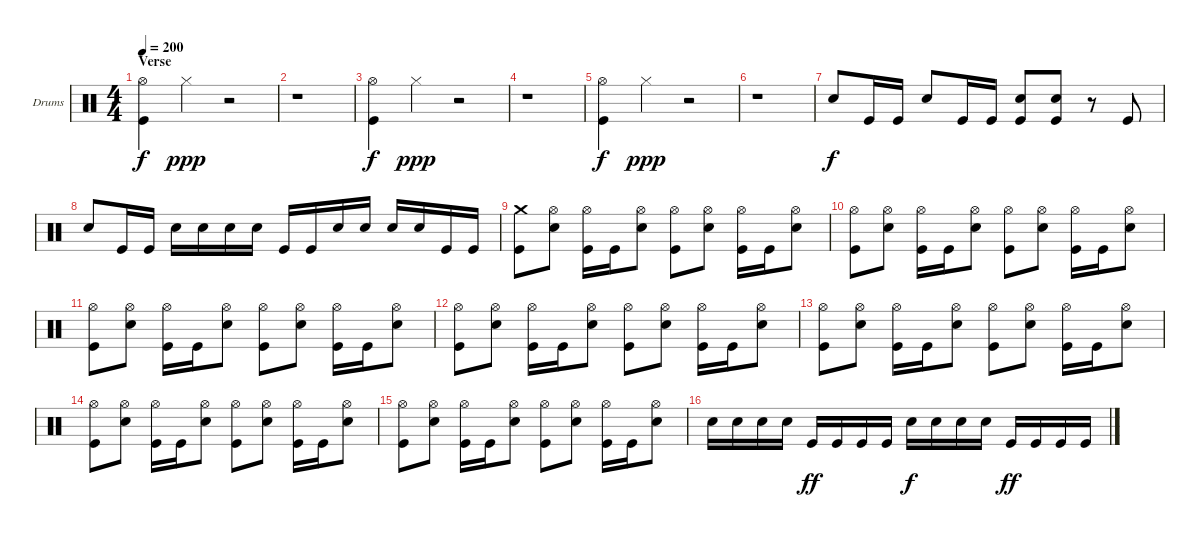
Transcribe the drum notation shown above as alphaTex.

\bracketExtendMode groupsimilarinstruments
\firstSystemTrackNameOrientation horizontal
\otherSystemsTrackNameOrientation horizontal
\track ("Drumkit" "Drums") {instrument percussion}
\staff {score}
\articulation defaults
\ts (4 4)
\section ("" "Verse")
\tempo 200
\clef neutral
\ks aminor
("Kick (hit)" "Hi-Hat (open)").4{dy f} "Hi-Hat (closed)".4{dy ppp} r.2 |
r.1 |
("Kick (hit)" "Hi-Hat (open)").4{dy f} "Hi-Hat (closed)".4{dy ppp} r.2 |
r.1 |
("Kick (hit)" "Hi-Hat (open)").4{dy f} "Hi-Hat (closed)".4{dy ppp} r.2 |
r.1 |
"Snare (hit) 2".8{dy f} "Kick (hit)".16 "Kick (hit)".16 "Snare (hit) 2".8 "Kick (hit)".16 "Kick (hit)".16 ("Kick (hit)" "Snare (hit) 2").8 ("Kick (hit)" "Snare (hit) 2").8 r.8 "Kick (hit)".8 |
"Snare (hit) 2".8 "Kick (hit)".16 "Kick (hit)".16 "Snare (hit) 2".16 "Snare (hit) 2".16 "Snare (hit) 2".16 "Snare (hit) 2".16 "Kick (hit)".16 "Kick (hit)".16 "Snare (hit) 2".16 "Snare (hit) 2".16 "Snare (hit) 2".16 "Snare (hit) 2".16 "Kick (hit)".16 "Kick (hit)".16 |
\section ("" "")
("Kick (hit)" "Crash medium (hit)").8 ("Snare (hit) 2" "Hi-Hat (open)").8 ("Kick (hit)" "Hi-Hat (open)").16 "Kick (hit)".16 ("Snare (hit) 2" "Hi-Hat (open)").8 ("Kick (hit)" "Hi-Hat (open)").8 ("Snare (hit) 2" "Hi-Hat (open)").8 ("Kick (hit)" "Hi-Hat (open)").16 "Kick (hit)".16 ("Snare (hit) 2" "Hi-Hat (open)").8 |
("Kick (hit)" "Hi-Hat (open)").8 ("Snare (hit) 2" "Hi-Hat (open)").8 ("Kick (hit)" "Hi-Hat (open)").16 "Kick (hit)".16 ("Snare (hit) 2" "Hi-Hat (open)").8 ("Kick (hit)" "Hi-Hat (open)").8 ("Snare (hit) 2" "Hi-Hat (open)").8 ("Kick (hit)" "Hi-Hat (open)").16 "Kick (hit)".16 ("Snare (hit) 2" "Hi-Hat (open)").8 |
("Kick (hit)" "Hi-Hat (open)").8 ("Snare (hit) 2" "Hi-Hat (open)").8 ("Kick (hit)" "Hi-Hat (open)").16 "Kick (hit)".16 ("Snare (hit) 2" "Hi-Hat (open)").8 ("Kick (hit)" "Hi-Hat (open)").8 ("Snare (hit) 2" "Hi-Hat (open)").8 ("Kick (hit)" "Hi-Hat (open)").16 "Kick (hit)".16 ("Snare (hit) 2" "Hi-Hat (open)").8 |
("Kick (hit)" "Hi-Hat (open)").8 ("Snare (hit) 2" "Hi-Hat (open)").8 ("Kick (hit)" "Hi-Hat (open)").16 "Kick (hit)".16 ("Snare (hit) 2" "Hi-Hat (open)").8 ("Kick (hit)" "Hi-Hat (open)").8 ("Snare (hit) 2" "Hi-Hat (open)").8 ("Kick (hit)" "Hi-Hat (open)").16 "Kick (hit)".16 ("Snare (hit) 2" "Hi-Hat (open)").8 |
("Kick (hit)" "Hi-Hat (open)").8 ("Snare (hit) 2" "Hi-Hat (open)").8 ("Kick (hit)" "Hi-Hat (open)").16 "Kick (hit)".16 ("Snare (hit) 2" "Hi-Hat (open)").8 ("Kick (hit)" "Hi-Hat (open)").8 ("Snare (hit) 2" "Hi-Hat (open)").8 ("Kick (hit)" "Hi-Hat (open)").16 "Kick (hit)".16 ("Snare (hit) 2" "Hi-Hat (open)").8 |
("Kick (hit)" "Hi-Hat (open)").8 ("Snare (hit) 2" "Hi-Hat (open)").8 ("Kick (hit)" "Hi-Hat (open)").16 "Kick (hit)".16 ("Snare (hit) 2" "Hi-Hat (open)").8 ("Kick (hit)" "Hi-Hat (open)").8 ("Snare (hit) 2" "Hi-Hat (open)").8 ("Kick (hit)" "Hi-Hat (open)").16 "Kick (hit)".16 ("Snare (hit) 2" "Hi-Hat (open)").8 |
("Kick (hit)" "Hi-Hat (open)").8 ("Snare (hit) 2" "Hi-Hat (open)").8 ("Kick (hit)" "Hi-Hat (open)").16 "Kick (hit)".16 ("Snare (hit) 2" "Hi-Hat (open)").8 ("Kick (hit)" "Hi-Hat (open)").8 ("Snare (hit) 2" "Hi-Hat (open)").8 ("Kick (hit)" "Hi-Hat (open)").16 "Kick (hit)".16 ("Snare (hit) 2" "Hi-Hat (open)").8 |
"Snare (hit) 2".16 "Snare (hit) 2".16 "Snare (hit) 2".16 "Snare (hit) 2".16 "Kick (hit)".16{dy ff} "Kick (hit)".16 "Kick (hit)".16 "Kick (hit)".16 "Snare (hit) 2".16{dy f} "Snare (hit) 2".16 "Snare (hit) 2".16 "Snare (hit) 2".16 "Kick (hit)".16{dy ff} "Kick (hit)".16 "Kick (hit)".16 "Kick (hit)".16
